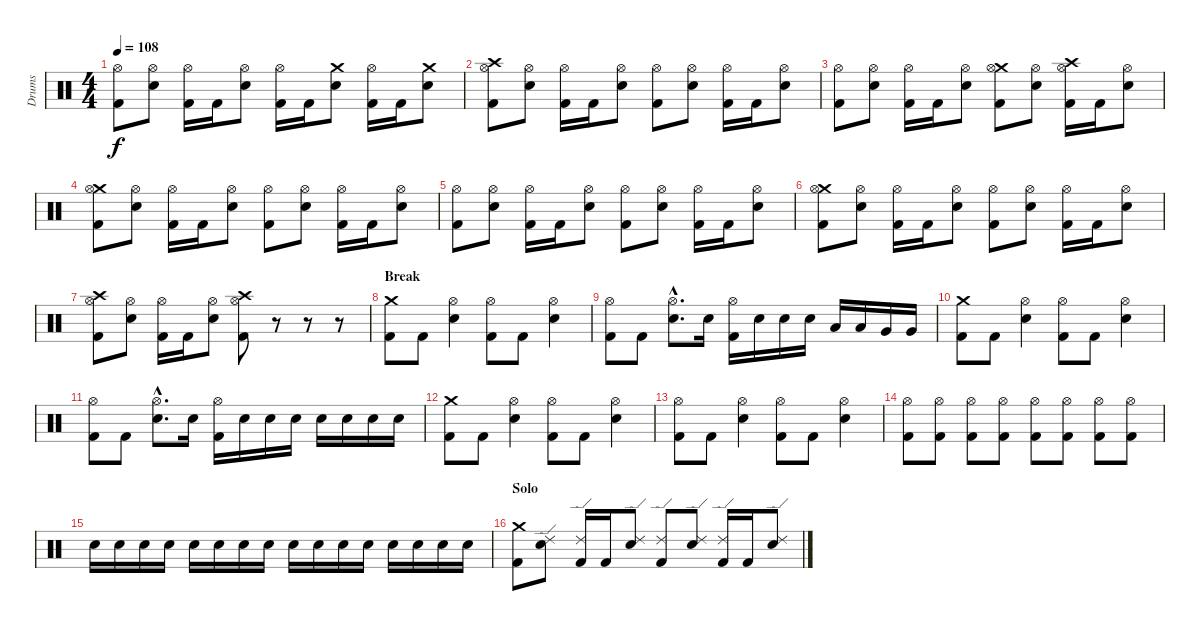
\track ("Drums" "Drums") {instrument percussion}
\staff {score}
\articulation defaults
\ts (4 4)
\tempo 108
\clef neutral
\ks c
("Hi-Hat (open)" "Kick (hit) 2").8{dy f} ("Hi-Hat (open)" "Electric Snare (hit)").8 ("Hi-Hat (open)" "Kick (hit) 2").16 "Kick (hit) 2".16 ("Hi-Hat (open)" "Electric Snare (hit)").8 ("Hi-Hat (open)" "Kick (hit) 2").16 "Kick (hit) 2".16 ("Crash medium (hit)" "Electric Snare (hit)").8 ("Hi-Hat (open)" "Kick (hit) 2").16 "Kick (hit) 2".16 ("Crash medium (hit)" "Electric Snare (hit)").8 |
("Crash high (hit)" "Hi-Hat (open)" "Kick (hit) 2").8 ("Hi-Hat (open)" "Electric Snare (hit)").8 ("Hi-Hat (open)" "Kick (hit) 2").16 "Kick (hit) 2".16 ("Hi-Hat (open)" "Electric Snare (hit)").8 ("Hi-Hat (open)" "Kick (hit) 2").8 ("Hi-Hat (open)" "Electric Snare (hit)").8 ("Hi-Hat (open)" "Kick (hit) 2").16 "Kick (hit) 2".16 ("Hi-Hat (open)" "Electric Snare (hit)").8 |
("Hi-Hat (open)" "Kick (hit) 2").8 ("Hi-Hat (open)" "Electric Snare (hit)").8 ("Hi-Hat (open)" "Kick (hit) 2").16 "Kick (hit) 2".16 ("Hi-Hat (open)" "Electric Snare (hit)").8 ("Crash medium (hit)" "Hi-Hat (open)" "Kick (hit) 2").8 ("Hi-Hat (open)" "Electric Snare (hit)").8 ("Crash high (hit)" "Hi-Hat (open)" "Kick (hit) 2").16 "Kick (hit) 2".16 ("Hi-Hat (open)" "Electric Snare (hit)").8 |
("Crash medium (hit)" "Hi-Hat (open)" "Kick (hit) 2").8 ("Hi-Hat (open)" "Electric Snare (hit)").8 ("Hi-Hat (open)" "Kick (hit) 2").16 "Kick (hit) 2".16 ("Hi-Hat (open)" "Electric Snare (hit)").8 ("Hi-Hat (open)" "Kick (hit) 2").8 ("Hi-Hat (open)" "Electric Snare (hit)").8 ("Hi-Hat (open)" "Kick (hit) 2").16 "Kick (hit) 2".16 ("Hi-Hat (open)" "Electric Snare (hit)").8 |
("Hi-Hat (open)" "Kick (hit) 2").8 ("Hi-Hat (open)" "Electric Snare (hit)").8 ("Hi-Hat (open)" "Kick (hit) 2").16 "Kick (hit) 2".16 ("Hi-Hat (open)" "Electric Snare (hit)").8 ("Hi-Hat (open)" "Kick (hit) 2").8 ("Hi-Hat (open)" "Electric Snare (hit)").8 ("Hi-Hat (open)" "Kick (hit) 2").16 "Kick (hit) 2".16 ("Hi-Hat (open)" "Electric Snare (hit)").8 |
("Crash medium (hit)" "Hi-Hat (open)" "Kick (hit) 2").8 ("Hi-Hat (open)" "Electric Snare (hit)").8 ("Hi-Hat (open)" "Kick (hit) 2").16 "Kick (hit) 2".16 ("Hi-Hat (open)" "Electric Snare (hit)").8 ("Hi-Hat (open)" "Kick (hit) 2").8 ("Hi-Hat (open)" "Electric Snare (hit)").8 ("Hi-Hat (open)" "Kick (hit) 2").16 "Kick (hit) 2".16 ("Hi-Hat (open)" "Electric Snare (hit)").8 |
("Crash high (hit)" "Hi-Hat (open)" "Kick (hit) 2").8 ("Hi-Hat (open)" "Electric Snare (hit)").8 ("Hi-Hat (open)" "Kick (hit) 2").16 "Kick (hit) 2".16 ("Hi-Hat (open)" "Electric Snare (hit)").8 ("Crash high (hit)" "Hi-Hat (open)" "Kick (hit) 2").8 r.8 r.8 r.8 |
\section ("" "Break")
("Crash medium (hit)" "Kick (hit) 2").8 "Kick (hit) 2".8 ("Hi-Hat (open)" "Electric Snare (hit)").4 ("Hi-Hat (open)" "Kick (hit) 2").8 "Kick (hit) 2".8 ("Hi-Hat (open)" "Electric Snare (hit)").4 |
("Hi-Hat (open)" "Kick (hit) 2").8 "Kick (hit) 2".8 ("Hi-Hat (open)"{hac} "Electric Snare (hit)"{hac}).8{d} "Electric Snare (hit)".16 ("Hi-Hat (open)" "Kick (hit) 2").16 "Electric Snare (hit)".16 "Electric Snare (hit)".16 "Electric Snare (hit)".16 "Low Tom (hit)".16 "Low Tom (hit)".16 "Very Low Tom (hit)".16 "Very Low Tom (hit)".16 |
("Crash medium (hit)" "Kick (hit) 2").8 "Kick (hit) 2".8 ("Hi-Hat (open)" "Electric Snare (hit)").4 ("Hi-Hat (open)" "Kick (hit) 2").8 "Kick (hit) 2".8 ("Hi-Hat (open)" "Electric Snare (hit)").4 |
("Hi-Hat (open)" "Kick (hit) 2").8 "Kick (hit) 2".8 ("Hi-Hat (open)"{hac} "Electric Snare (hit)"{hac}).8{d} "Electric Snare (hit)".16 ("Hi-Hat (open)" "Kick (hit) 2").16 "Electric Snare (hit)".16 "Electric Snare (hit)".16 "Electric Snare (hit)".16 "Electric Snare (hit)".16 "Electric Snare (hit)".16 "Electric Snare (hit)".16 "Electric Snare (hit)".16 |
("Crash medium (hit)" "Kick (hit) 2").8 "Kick (hit) 2".8 ("Hi-Hat (open)" "Electric Snare (hit)").4 ("Hi-Hat (open)" "Kick (hit) 2").8 "Kick (hit) 2".8 ("Hi-Hat (open)" "Electric Snare (hit)").4 |
("Hi-Hat (open)" "Kick (hit) 2").8 "Kick (hit) 2".8 ("Hi-Hat (open)" "Electric Snare (hit)").4 ("Hi-Hat (open)" "Kick (hit) 2").8 "Kick (hit) 2".8 ("Hi-Hat (open)" "Electric Snare (hit)").4 |
("Hi-Hat (open)" "Kick (hit) 2").8 ("Hi-Hat (open)" "Kick (hit) 2").8 ("Hi-Hat (open)" "Kick (hit) 2").8 ("Hi-Hat (open)" "Kick (hit) 2").8 ("Hi-Hat (open)" "Kick (hit) 2").8 ("Hi-Hat (open)" "Kick (hit) 2").8 ("Hi-Hat (open)" "Kick (hit) 2").8 ("Hi-Hat (open)" "Kick (hit) 2").8 |
"Electric Snare (hit)".16 "Electric Snare (hit)".16 "Electric Snare (hit)".16 "Electric Snare (hit)".16 "Electric Snare (hit)".16 "Electric Snare (hit)".16 "Electric Snare (hit)".16 "Electric Snare (hit)".16 "Electric Snare (hit)".16 "Electric Snare (hit)".16 "Electric Snare (hit)".16 "Electric Snare (hit)".16 "Electric Snare (hit)".16 "Electric Snare (hit)".16 "Electric Snare (hit)".16 "Electric Snare (hit)".16 |
\section ("" "Solo")
("Crash medium (hit)" "Kick (hit) 2").8 ("Ride (edge) 2" "Electric Snare (hit)").8 ("Ride (edge) 2" "Kick (hit) 2").16 "Kick (hit) 2".16 ("Ride (edge) 2" "Electric Snare (hit)").8 ("Ride (edge) 2" "Kick (hit) 2").8 ("Ride (edge) 2" "Electric Snare (hit)").8 ("Ride (edge) 2" "Kick (hit) 2").16 "Kick (hit) 2".16 ("Ride (edge) 2" "Electric Snare (hit)").8
